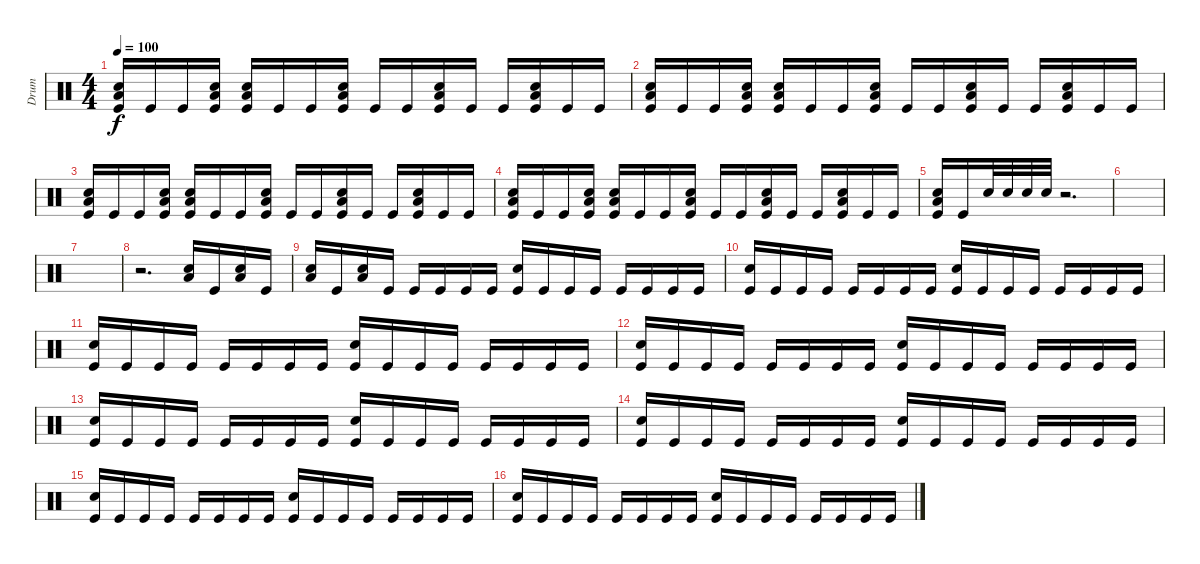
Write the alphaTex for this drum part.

\track ("Drum" "Drum") {instrument percussion}
\staff {score}
\articulation defaults
\ts (4 4)
\tempo 100
\clef neutral
\ks c
("Snare (hit) 2" "Low Tom (hit)" "Kick (hit)").16{dy f} "Kick (hit)".16 "Kick (hit)".16 ("Snare (hit) 2" "Low Tom (hit)" "Kick (hit)").16 ("Snare (hit) 2" "Low Tom (hit)" "Kick (hit)").16 "Kick (hit)".16 "Kick (hit)".16 ("Snare (hit) 2" "Low Tom (hit)" "Kick (hit)").16 "Kick (hit)".16 "Kick (hit)".16 ("Snare (hit) 2" "Low Tom (hit)" "Kick (hit)").16 "Kick (hit)".16 "Kick (hit)".16 ("Snare (hit) 2" "Low Tom (hit)" "Kick (hit)").16 "Kick (hit)".16 "Kick (hit)".16 |
("Snare (hit) 2" "Low Tom (hit)" "Kick (hit)").16 "Kick (hit)".16 "Kick (hit)".16 ("Snare (hit) 2" "Low Tom (hit)" "Kick (hit)").16 ("Snare (hit) 2" "Low Tom (hit)" "Kick (hit)").16 "Kick (hit)".16 "Kick (hit)".16 ("Snare (hit) 2" "Low Tom (hit)" "Kick (hit)").16 "Kick (hit)".16 "Kick (hit)".16 ("Snare (hit) 2" "Low Tom (hit)" "Kick (hit)").16 "Kick (hit)".16 "Kick (hit)".16 ("Snare (hit) 2" "Low Tom (hit)" "Kick (hit)").16 "Kick (hit)".16 "Kick (hit)".16 |
("Snare (hit) 2" "Low Tom (hit)" "Kick (hit)").16 "Kick (hit)".16 "Kick (hit)".16 ("Snare (hit) 2" "Low Tom (hit)" "Kick (hit)").16 ("Snare (hit) 2" "Low Tom (hit)" "Kick (hit)").16 "Kick (hit)".16 "Kick (hit)".16 ("Snare (hit) 2" "Low Tom (hit)" "Kick (hit)").16 "Kick (hit)".16 "Kick (hit)".16 ("Snare (hit) 2" "Low Tom (hit)" "Kick (hit)").16 "Kick (hit)".16 "Kick (hit)".16 ("Snare (hit) 2" "Low Tom (hit)" "Kick (hit)").16 "Kick (hit)".16 "Kick (hit)".16 |
("Snare (hit) 2" "Low Tom (hit)" "Kick (hit)").16 "Kick (hit)".16 "Kick (hit)".16 ("Snare (hit) 2" "Low Tom (hit)" "Kick (hit)").16 ("Snare (hit) 2" "Low Tom (hit)" "Kick (hit)").16 "Kick (hit)".16 "Kick (hit)".16 ("Snare (hit) 2" "Low Tom (hit)" "Kick (hit)").16 "Kick (hit)".16 "Kick (hit)".16 ("Snare (hit) 2" "Low Tom (hit)" "Kick (hit)").16 "Kick (hit)".16 "Kick (hit)".16 ("Snare (hit) 2" "Low Tom (hit)" "Kick (hit)").16 "Kick (hit)".16 "Kick (hit)".16 |
("Snare (hit) 2" "Low Tom (hit)" "Kick (hit)").16 "Kick (hit)".16 "Snare (hit) 2".32 "Snare (hit) 2".32 "Snare (hit) 2".32 "Snare (hit) 2".32 r.2{d} |
|
|
r.2{d} ("Snare (hit) 2" "Low Tom (hit)").16 "Kick (hit)".16 ("Snare (hit) 2" "Low Tom (hit)").16 "Kick (hit)".16 |
("Snare (hit) 2" "Low Tom (hit)").16 "Kick (hit)".16 ("Snare (hit) 2" "Low Tom (hit)").16 "Kick (hit)".16 "Kick (hit)".16 "Kick (hit)".16 "Kick (hit)".16 "Kick (hit)".16 ("Snare (hit) 2" "Kick (hit)").16 "Kick (hit)".16 "Kick (hit)".16 "Kick (hit)".16 "Kick (hit)".16 "Kick (hit)".16 "Kick (hit)".16 "Kick (hit)".16 |
("Snare (hit) 2" "Kick (hit)").16 "Kick (hit)".16 "Kick (hit)".16 "Kick (hit)".16 "Kick (hit)".16 "Kick (hit)".16 "Kick (hit)".16 "Kick (hit)".16 ("Snare (hit) 2" "Kick (hit)").16 "Kick (hit)".16 "Kick (hit)".16 "Kick (hit)".16 "Kick (hit)".16 "Kick (hit)".16 "Kick (hit)".16 "Kick (hit)".16 |
("Snare (hit) 2" "Kick (hit)").16 "Kick (hit)".16 "Kick (hit)".16 "Kick (hit)".16 "Kick (hit)".16 "Kick (hit)".16 "Kick (hit)".16 "Kick (hit)".16 ("Snare (hit) 2" "Kick (hit)").16 "Kick (hit)".16 "Kick (hit)".16 "Kick (hit)".16 "Kick (hit)".16 "Kick (hit)".16 "Kick (hit)".16 "Kick (hit)".16 |
("Snare (hit) 2" "Kick (hit)").16 "Kick (hit)".16 "Kick (hit)".16 "Kick (hit)".16 "Kick (hit)".16 "Kick (hit)".16 "Kick (hit)".16 "Kick (hit)".16 ("Snare (hit) 2" "Kick (hit)").16 "Kick (hit)".16 "Kick (hit)".16 "Kick (hit)".16 "Kick (hit)".16 "Kick (hit)".16 "Kick (hit)".16 "Kick (hit)".16 |
("Snare (hit) 2" "Kick (hit)").16 "Kick (hit)".16 "Kick (hit)".16 "Kick (hit)".16 "Kick (hit)".16 "Kick (hit)".16 "Kick (hit)".16 "Kick (hit)".16 ("Snare (hit) 2" "Kick (hit)").16 "Kick (hit)".16 "Kick (hit)".16 "Kick (hit)".16 "Kick (hit)".16 "Kick (hit)".16 "Kick (hit)".16 "Kick (hit)".16 |
("Snare (hit) 2" "Kick (hit)").16 "Kick (hit)".16 "Kick (hit)".16 "Kick (hit)".16 "Kick (hit)".16 "Kick (hit)".16 "Kick (hit)".16 "Kick (hit)".16 ("Snare (hit) 2" "Kick (hit)").16 "Kick (hit)".16 "Kick (hit)".16 "Kick (hit)".16 "Kick (hit)".16 "Kick (hit)".16 "Kick (hit)".16 "Kick (hit)".16 |
("Snare (hit) 2" "Kick (hit)").16 "Kick (hit)".16 "Kick (hit)".16 "Kick (hit)".16 "Kick (hit)".16 "Kick (hit)".16 "Kick (hit)".16 "Kick (hit)".16 ("Snare (hit) 2" "Kick (hit)").16 "Kick (hit)".16 "Kick (hit)".16 "Kick (hit)".16 "Kick (hit)".16 "Kick (hit)".16 "Kick (hit)".16 "Kick (hit)".16 |
("Snare (hit) 2" "Kick (hit)").16 "Kick (hit)".16 "Kick (hit)".16 "Kick (hit)".16 "Kick (hit)".16 "Kick (hit)".16 "Kick (hit)".16 "Kick (hit)".16 ("Snare (hit) 2" "Kick (hit)").16 "Kick (hit)".16 "Kick (hit)".16 "Kick (hit)".16 "Kick (hit)".16 "Kick (hit)".16 "Kick (hit)".16 "Kick (hit)".16
